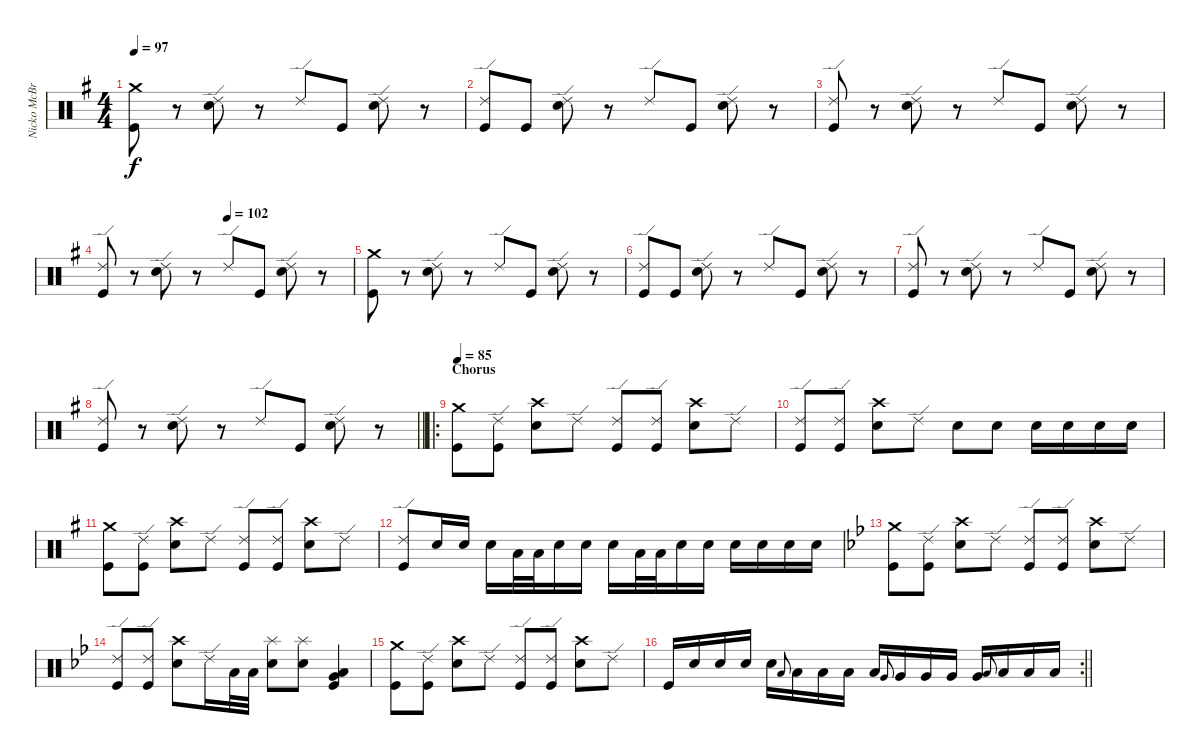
\track ("Nicko McBrain (Drums)" "Nicko McBr") {instrument percussion}
\staff {score}
\articulation defaults
\ts (4 4)
\tempo 97
\clef neutral
\ks eminor
("Crash medium (hit)" "Kick (hit)").8{dy f} r.8 ("Ride (edge) 2" "Snare (hit) 2").8 r.8 "Ride (edge) 2".8 "Kick (hit)".8 ("Ride (edge) 2" "Snare (hit) 2").8 r.8 |
("Ride (edge) 2" "Kick (hit)").8 "Kick (hit)".8 ("Ride (edge) 2" "Snare (hit) 2").8 r.8 "Ride (edge) 2".8 "Kick (hit)".8 ("Ride (edge) 2" "Snare (hit) 2").8 r.8 |
("Ride (edge) 2" "Kick (hit)").8 r.8 ("Ride (edge) 2" "Snare (hit) 2").8 r.8 "Ride (edge) 2".8 "Kick (hit)".8 ("Ride (edge) 2" "Snare (hit) 2").8 r.8 |
\tempo (102 0.5)
("Ride (edge) 2" "Kick (hit)").8 r.8 ("Ride (edge) 2" "Snare (hit) 2").8 r.8 "Ride (edge) 2".8 "Kick (hit)".8 ("Ride (edge) 2" "Snare (hit) 2").8 r.8 |
("Crash medium (hit)" "Kick (hit)").8 r.8 ("Ride (edge) 2" "Snare (hit) 2").8 r.8 "Ride (edge) 2".8 "Kick (hit)".8 ("Ride (edge) 2" "Snare (hit) 2").8 r.8 |
("Ride (edge) 2" "Kick (hit)").8 "Kick (hit)".8 ("Ride (edge) 2" "Snare (hit) 2").8 r.8 "Ride (edge) 2".8 "Kick (hit)".8 ("Ride (edge) 2" "Snare (hit) 2").8 r.8 |
("Ride (edge) 2" "Kick (hit)").8 r.8 ("Ride (edge) 2" "Snare (hit) 2").8 r.8 "Ride (edge) 2".8 "Kick (hit)".8 ("Ride (edge) 2" "Snare (hit) 2").8 r.8 |
\barLineRight lightlight
("Ride (edge) 2" "Kick (hit)").8 r.8 ("Ride (edge) 2" "Snare (hit) 2").8 r.8 "Ride (edge) 2".8 "Kick (hit)".8 ("Ride (edge) 2" "Snare (hit) 2").8 r.8 |
\ro
\section ("" "Chorus")
\tempo 85
("Crash medium (hit)" "Kick (hit)").8 ("Ride (edge) 2" "Kick (hit)").8 ("Crash high (hit)" "Snare (hit) 2").8 "Ride (edge) 2".8 ("Ride (edge) 2" "Kick (hit)").8 ("Ride (edge) 2" "Kick (hit)").8 ("Crash high (hit)" "Snare (hit) 2").8 "Ride (edge) 2".8 |
("Ride (edge) 2" "Kick (hit)").8 ("Ride (edge) 2" "Kick (hit)").8 ("Crash high (hit)" "Snare (hit) 2").8 "Ride (edge) 2".8 "Snare (hit) 2".8 "Snare (hit) 2".8 "Snare (hit) 2".16 "Snare (hit) 2".16 "Snare (hit) 2".16 "Snare (hit) 2".16 |
("Crash medium (hit)" "Kick (hit)").8 ("Ride (edge) 2" "Kick (hit)").8 ("Crash high (hit)" "Snare (hit) 2").8 "Ride (edge) 2".8 ("Ride (edge) 2" "Kick (hit)").8 ("Ride (edge) 2" "Kick (hit)").8 ("Crash high (hit)" "Snare (hit) 2").8 "Ride (edge) 2".8 |
("Ride (edge) 2" "Kick (hit)").8 "Snare (hit) 2".16 "Snare (hit) 2".16 "Snare (hit) 2".16 "Low Tom (hit)".32 "Low Tom (hit)".32 "Snare (hit) 2".16 "Snare (hit) 2".16 "Snare (hit) 2".16 "Low Tom (hit)".32 "Low Tom (hit)".32 "Snare (hit) 2".16 "Snare (hit) 2".16 "Snare (hit) 2".16 "Snare (hit) 2".16 "Snare (hit) 2".16 "Snare (hit) 2".16 |
\ks gminor
("Crash medium (hit)" "Kick (hit)").8 ("Ride (edge) 2" "Kick (hit)").8 ("Crash high (hit)" "Snare (hit) 2").8 "Ride (edge) 2".8 ("Ride (edge) 2" "Kick (hit)").8 ("Ride (edge) 2" "Kick (hit)").8 ("Crash high (hit)" "Snare (hit) 2").8 "Ride (edge) 2".8 |
("Ride (edge) 2" "Kick (hit)").8 ("Ride (edge) 2" "Kick (hit)").8 ("Crash high (hit)" "Snare (hit) 2").8 "Ride (edge) 2".16 "Low Tom (hit)".32 "Low Tom (hit)".32 ("Splash (hit)" "Snare (hit) 2").8 ("Splash (hit)" "Snare (hit) 2").8 ("Very Low Tom (hit)" "Low Tom (hit)" "Kick (hit)").4 |
("Crash medium (hit)" "Kick (hit)").8 ("Ride (edge) 2" "Kick (hit)").8 ("Crash high (hit)" "Snare (hit) 2").8 "Ride (edge) 2".8 ("Ride (edge) 2" "Kick (hit)").8 ("Ride (edge) 2" "Kick (hit)").8 ("Crash high (hit)" "Snare (hit) 2").8 "Ride (edge) 2".8 |
\rc 2
\barLineRight lightlight "Kick (hit)".16 "Snare (hit) 2".16 "Snare (hit) 2".16 "Snare (hit) 2".16 "Snare (hit) 2".16 "Low Tom (hit)".8{gr onbeat} "Low Tom (hit)".16 "Low Tom (hit)".16 "Low Tom (hit)".16 "Low Tom (hit)".16 "Very Low Tom (hit)".8{gr onbeat} "Very Low Tom (hit)".16 "Very Low Tom (hit)".16 "Very Low Tom (hit)".16 "Very Low Tom (hit)".16 "Low Floor Tom (hit)".8{gr onbeat} "Low Floor Tom (hit)".16 "Low Floor Tom (hit)".16 "Low Floor Tom (hit)".16
